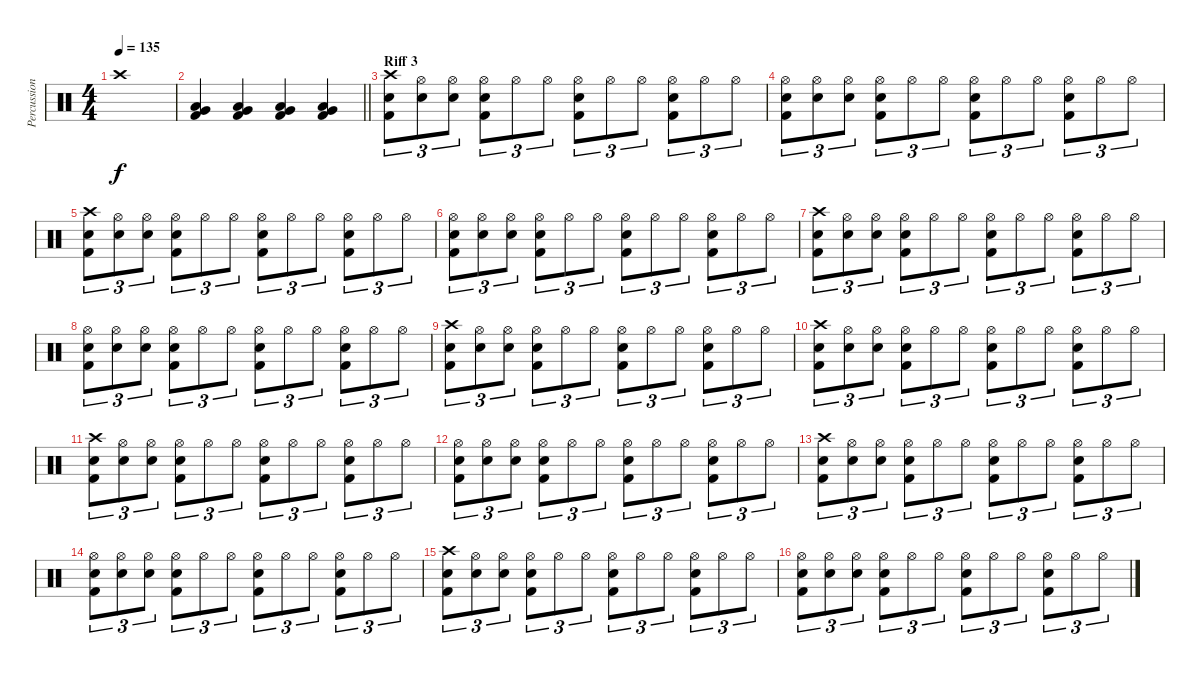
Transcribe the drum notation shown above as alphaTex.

\track ("Percussion" "Percussion") {instrument percussion}
\staff {score}
\articulation defaults
\ts (4 4)
\tempo 135
\clef neutral
\ks c "Crash high (hit)".1{dy f}
|
\barLineRight lightlight
("Low Tom (hit)" "Very Low Tom (hit)" "Kick (hit) 2").4 ("Low Tom (hit)" "Very Low Tom (hit)" "Kick (hit) 2").4 ("Low Tom (hit)" "Very Low Tom (hit)" "Kick (hit) 2").4 ("Low Tom (hit)" "Very Low Tom (hit)" "Kick (hit) 2").4 |
\section ("" "Riff 3")
("Crash high (hit)" "Snare (hit) 2" "Kick (hit) 2").8{tu (3 2)} ("Hi-Hat (open)" "Snare (hit) 2").8{tu (3 2)} ("Hi-Hat (open)" "Snare (hit) 2").8{tu (3 2)} ("Hi-Hat (open)" "Snare (hit) 2" "Kick (hit) 2").8{tu (3 2)} "Hi-Hat (open)".8{tu (3 2)} "Hi-Hat (open)".8{tu (3 2)} ("Hi-Hat (open)" "Snare (hit) 2" "Kick (hit) 2").8{tu (3 2)} "Hi-Hat (open)".8{tu (3 2)} "Hi-Hat (open)".8{tu (3 2)} ("Hi-Hat (open)" "Snare (hit) 2" "Kick (hit) 2").8{tu (3 2)} "Hi-Hat (open)".8{tu (3 2)} "Hi-Hat (open)".8{tu (3 2)} |
("Hi-Hat (open)" "Snare (hit) 2" "Kick (hit) 2").8{tu (3 2)} ("Hi-Hat (open)" "Snare (hit) 2").8{tu (3 2)} ("Hi-Hat (open)" "Snare (hit) 2").8{tu (3 2)} ("Hi-Hat (open)" "Snare (hit) 2" "Kick (hit) 2").8{tu (3 2)} "Hi-Hat (open)".8{tu (3 2)} "Hi-Hat (open)".8{tu (3 2)} ("Hi-Hat (open)" "Snare (hit) 2" "Kick (hit) 2").8{tu (3 2)} "Hi-Hat (open)".8{tu (3 2)} "Hi-Hat (open)".8{tu (3 2)} ("Hi-Hat (open)" "Snare (hit) 2" "Kick (hit) 2").8{tu (3 2)} "Hi-Hat (open)".8{tu (3 2)} "Hi-Hat (open)".8{tu (3 2)} |
("Crash high (hit)" "Snare (hit) 2" "Kick (hit) 2").8{tu (3 2)} ("Hi-Hat (open)" "Snare (hit) 2").8{tu (3 2)} ("Hi-Hat (open)" "Snare (hit) 2").8{tu (3 2)} ("Hi-Hat (open)" "Snare (hit) 2" "Kick (hit) 2").8{tu (3 2)} "Hi-Hat (open)".8{tu (3 2)} "Hi-Hat (open)".8{tu (3 2)} ("Hi-Hat (open)" "Snare (hit) 2" "Kick (hit) 2").8{tu (3 2)} "Hi-Hat (open)".8{tu (3 2)} "Hi-Hat (open)".8{tu (3 2)} ("Hi-Hat (open)" "Snare (hit) 2" "Kick (hit) 2").8{tu (3 2)} "Hi-Hat (open)".8{tu (3 2)} "Hi-Hat (open)".8{tu (3 2)} |
("Hi-Hat (open)" "Snare (hit) 2" "Kick (hit) 2").8{tu (3 2)} ("Hi-Hat (open)" "Snare (hit) 2").8{tu (3 2)} ("Hi-Hat (open)" "Snare (hit) 2").8{tu (3 2)} ("Hi-Hat (open)" "Snare (hit) 2" "Kick (hit) 2").8{tu (3 2)} "Hi-Hat (open)".8{tu (3 2)} "Hi-Hat (open)".8{tu (3 2)} ("Hi-Hat (open)" "Snare (hit) 2" "Kick (hit) 2").8{tu (3 2)} "Hi-Hat (open)".8{tu (3 2)} "Hi-Hat (open)".8{tu (3 2)} ("Hi-Hat (open)" "Snare (hit) 2" "Kick (hit) 2").8{tu (3 2)} "Hi-Hat (open)".8{tu (3 2)} "Hi-Hat (open)".8{tu (3 2)} |
("Crash high (hit)" "Snare (hit) 2" "Kick (hit) 2").8{tu (3 2)} ("Hi-Hat (open)" "Snare (hit) 2").8{tu (3 2)} ("Hi-Hat (open)" "Snare (hit) 2").8{tu (3 2)} ("Hi-Hat (open)" "Snare (hit) 2" "Kick (hit) 2").8{tu (3 2)} "Hi-Hat (open)".8{tu (3 2)} "Hi-Hat (open)".8{tu (3 2)} ("Hi-Hat (open)" "Snare (hit) 2" "Kick (hit) 2").8{tu (3 2)} "Hi-Hat (open)".8{tu (3 2)} "Hi-Hat (open)".8{tu (3 2)} ("Hi-Hat (open)" "Snare (hit) 2" "Kick (hit) 2").8{tu (3 2)} "Hi-Hat (open)".8{tu (3 2)} "Hi-Hat (open)".8{tu (3 2)} |
("Hi-Hat (open)" "Snare (hit) 2" "Kick (hit) 2").8{tu (3 2)} ("Hi-Hat (open)" "Snare (hit) 2").8{tu (3 2)} ("Hi-Hat (open)" "Snare (hit) 2").8{tu (3 2)} ("Hi-Hat (open)" "Snare (hit) 2" "Kick (hit) 2").8{tu (3 2)} "Hi-Hat (open)".8{tu (3 2)} "Hi-Hat (open)".8{tu (3 2)} ("Hi-Hat (open)" "Snare (hit) 2" "Kick (hit) 2").8{tu (3 2)} "Hi-Hat (open)".8{tu (3 2)} "Hi-Hat (open)".8{tu (3 2)} ("Hi-Hat (open)" "Snare (hit) 2" "Kick (hit) 2").8{tu (3 2)} "Hi-Hat (open)".8{tu (3 2)} "Hi-Hat (open)".8{tu (3 2)} |
("Crash high (hit)" "Snare (hit) 2" "Kick (hit) 2").8{tu (3 2)} ("Hi-Hat (open)" "Snare (hit) 2").8{tu (3 2)} ("Hi-Hat (open)" "Snare (hit) 2").8{tu (3 2)} ("Hi-Hat (open)" "Snare (hit) 2" "Kick (hit) 2").8{tu (3 2)} "Hi-Hat (open)".8{tu (3 2)} "Hi-Hat (open)".8{tu (3 2)} ("Hi-Hat (open)" "Snare (hit) 2" "Kick (hit) 2").8{tu (3 2)} "Hi-Hat (open)".8{tu (3 2)} "Hi-Hat (open)".8{tu (3 2)} ("Hi-Hat (open)" "Snare (hit) 2" "Kick (hit) 2").8{tu (3 2)} "Hi-Hat (open)".8{tu (3 2)} "Hi-Hat (open)".8{tu (3 2)} |
("Crash high (hit)" "Snare (hit) 2" "Kick (hit) 2").8{tu (3 2)} ("Hi-Hat (open)" "Snare (hit) 2").8{tu (3 2)} ("Hi-Hat (open)" "Snare (hit) 2").8{tu (3 2)} ("Hi-Hat (open)" "Snare (hit) 2" "Kick (hit) 2").8{tu (3 2)} "Hi-Hat (open)".8{tu (3 2)} "Hi-Hat (open)".8{tu (3 2)} ("Hi-Hat (open)" "Snare (hit) 2" "Kick (hit) 2").8{tu (3 2)} "Hi-Hat (open)".8{tu (3 2)} "Hi-Hat (open)".8{tu (3 2)} ("Hi-Hat (open)" "Snare (hit) 2" "Kick (hit) 2").8{tu (3 2)} "Hi-Hat (open)".8{tu (3 2)} "Hi-Hat (open)".8{tu (3 2)} |
("Crash high (hit)" "Snare (hit) 2" "Kick (hit) 2").8{tu (3 2)} ("Hi-Hat (open)" "Snare (hit) 2").8{tu (3 2)} ("Hi-Hat (open)" "Snare (hit) 2").8{tu (3 2)} ("Hi-Hat (open)" "Snare (hit) 2" "Kick (hit) 2").8{tu (3 2)} "Hi-Hat (open)".8{tu (3 2)} "Hi-Hat (open)".8{tu (3 2)} ("Hi-Hat (open)" "Snare (hit) 2" "Kick (hit) 2").8{tu (3 2)} "Hi-Hat (open)".8{tu (3 2)} "Hi-Hat (open)".8{tu (3 2)} ("Hi-Hat (open)" "Snare (hit) 2" "Kick (hit) 2").8{tu (3 2)} "Hi-Hat (open)".8{tu (3 2)} "Hi-Hat (open)".8{tu (3 2)} |
("Hi-Hat (open)" "Snare (hit) 2" "Kick (hit) 2").8{tu (3 2)} ("Hi-Hat (open)" "Snare (hit) 2").8{tu (3 2)} ("Hi-Hat (open)" "Snare (hit) 2").8{tu (3 2)} ("Hi-Hat (open)" "Snare (hit) 2" "Kick (hit) 2").8{tu (3 2)} "Hi-Hat (open)".8{tu (3 2)} "Hi-Hat (open)".8{tu (3 2)} ("Hi-Hat (open)" "Snare (hit) 2" "Kick (hit) 2").8{tu (3 2)} "Hi-Hat (open)".8{tu (3 2)} "Hi-Hat (open)".8{tu (3 2)} ("Hi-Hat (open)" "Snare (hit) 2" "Kick (hit) 2").8{tu (3 2)} "Hi-Hat (open)".8{tu (3 2)} "Hi-Hat (open)".8{tu (3 2)} |
("Crash high (hit)" "Snare (hit) 2" "Kick (hit) 2").8{tu (3 2)} ("Hi-Hat (open)" "Snare (hit) 2").8{tu (3 2)} ("Hi-Hat (open)" "Snare (hit) 2").8{tu (3 2)} ("Hi-Hat (open)" "Snare (hit) 2" "Kick (hit) 2").8{tu (3 2)} "Hi-Hat (open)".8{tu (3 2)} "Hi-Hat (open)".8{tu (3 2)} ("Hi-Hat (open)" "Snare (hit) 2" "Kick (hit) 2").8{tu (3 2)} "Hi-Hat (open)".8{tu (3 2)} "Hi-Hat (open)".8{tu (3 2)} ("Hi-Hat (open)" "Snare (hit) 2" "Kick (hit) 2").8{tu (3 2)} "Hi-Hat (open)".8{tu (3 2)} "Hi-Hat (open)".8{tu (3 2)} |
("Hi-Hat (open)" "Snare (hit) 2" "Kick (hit) 2").8{tu (3 2)} ("Hi-Hat (open)" "Snare (hit) 2").8{tu (3 2)} ("Hi-Hat (open)" "Snare (hit) 2").8{tu (3 2)} ("Hi-Hat (open)" "Snare (hit) 2" "Kick (hit) 2").8{tu (3 2)} "Hi-Hat (open)".8{tu (3 2)} "Hi-Hat (open)".8{tu (3 2)} ("Hi-Hat (open)" "Snare (hit) 2" "Kick (hit) 2").8{tu (3 2)} "Hi-Hat (open)".8{tu (3 2)} "Hi-Hat (open)".8{tu (3 2)} ("Hi-Hat (open)" "Snare (hit) 2" "Kick (hit) 2").8{tu (3 2)} "Hi-Hat (open)".8{tu (3 2)} "Hi-Hat (open)".8{tu (3 2)} |
("Crash high (hit)" "Snare (hit) 2" "Kick (hit) 2").8{tu (3 2)} ("Hi-Hat (open)" "Snare (hit) 2").8{tu (3 2)} ("Hi-Hat (open)" "Snare (hit) 2").8{tu (3 2)} ("Hi-Hat (open)" "Snare (hit) 2" "Kick (hit) 2").8{tu (3 2)} "Hi-Hat (open)".8{tu (3 2)} "Hi-Hat (open)".8{tu (3 2)} ("Hi-Hat (open)" "Snare (hit) 2" "Kick (hit) 2").8{tu (3 2)} "Hi-Hat (open)".8{tu (3 2)} "Hi-Hat (open)".8{tu (3 2)} ("Hi-Hat (open)" "Snare (hit) 2" "Kick (hit) 2").8{tu (3 2)} "Hi-Hat (open)".8{tu (3 2)} "Hi-Hat (open)".8{tu (3 2)} |
("Hi-Hat (open)" "Snare (hit) 2" "Kick (hit) 2").8{tu (3 2)} ("Hi-Hat (open)" "Snare (hit) 2").8{tu (3 2)} ("Hi-Hat (open)" "Snare (hit) 2").8{tu (3 2)} ("Hi-Hat (open)" "Snare (hit) 2" "Kick (hit) 2").8{tu (3 2)} "Hi-Hat (open)".8{tu (3 2)} "Hi-Hat (open)".8{tu (3 2)} ("Hi-Hat (open)" "Snare (hit) 2" "Kick (hit) 2").8{tu (3 2)} "Hi-Hat (open)".8{tu (3 2)} "Hi-Hat (open)".8{tu (3 2)} ("Hi-Hat (open)" "Snare (hit) 2" "Kick (hit) 2").8{tu (3 2)} "Hi-Hat (open)".8{tu (3 2)} "Hi-Hat (open)".8{tu (3 2)}
